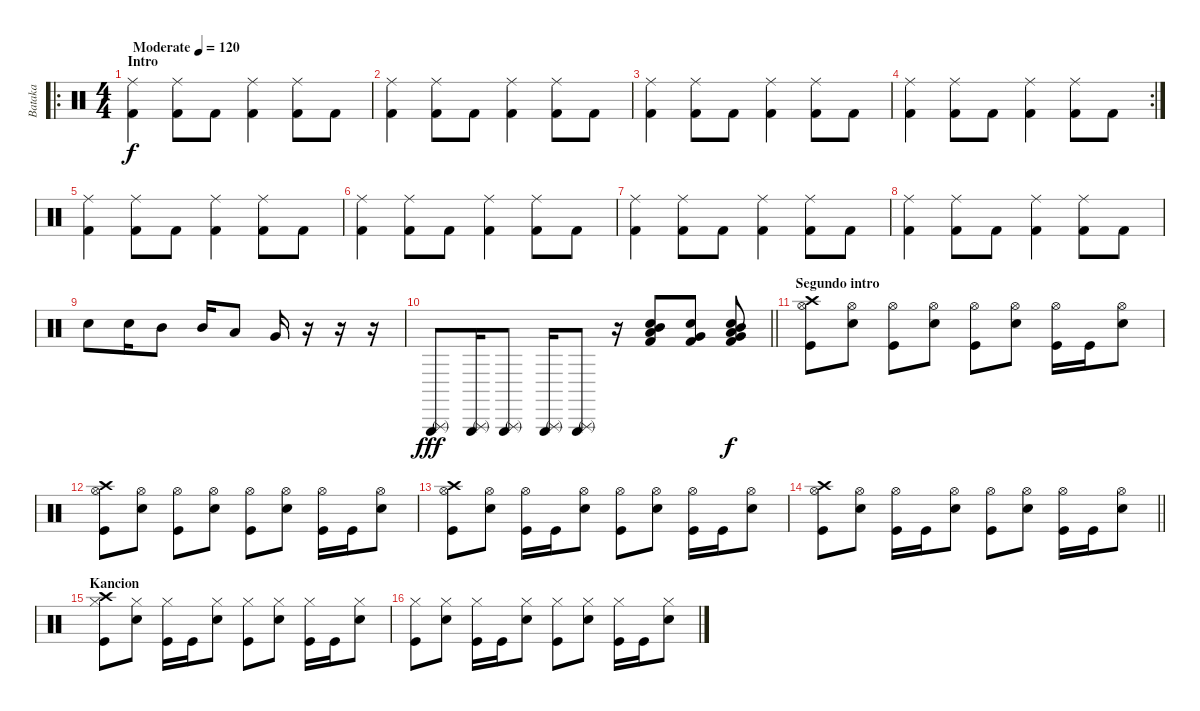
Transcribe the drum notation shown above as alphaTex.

\track ("Bataka" "Bataka") {instrument percussion}
\staff {score}
\articulation defaults
\ro
\ts (4 4)
\section ("" "Intro")
\tempo (120 "Moderate")
\clef neutral
\ks c
("Ride (middle)" "Kick (hit) 2").4{dy f} ("Ride (middle)" "Kick (hit) 2").8 "Kick (hit) 2".8 ("Ride (middle)" "Kick (hit) 2").4 ("Ride (middle)" "Kick (hit) 2").8 "Kick (hit) 2".8 |
("Ride (middle)" "Kick (hit) 2").4 ("Ride (middle)" "Kick (hit) 2").8 "Kick (hit) 2".8 ("Ride (middle)" "Kick (hit) 2").4 ("Ride (middle)" "Kick (hit) 2").8 "Kick (hit) 2".8 |
("Ride (middle)" "Kick (hit) 2").4 ("Ride (middle)" "Kick (hit) 2").8 "Kick (hit) 2".8 ("Ride (middle)" "Kick (hit) 2").4 ("Ride (middle)" "Kick (hit) 2").8 "Kick (hit) 2".8 |
\rc 2
("Ride (middle)" "Kick (hit) 2").4 ("Ride (middle)" "Kick (hit) 2").8 "Kick (hit) 2".8 ("Ride (middle)" "Kick (hit) 2").4 ("Ride (middle)" "Kick (hit) 2").8 "Kick (hit) 2".8 |
("Ride (middle)" "Kick (hit) 2").4 ("Ride (middle)" "Kick (hit) 2").8 "Kick (hit) 2".8 ("Ride (middle)" "Kick (hit) 2").4 ("Ride (middle)" "Kick (hit) 2").8 "Kick (hit) 2".8 |
("Ride (middle)" "Kick (hit) 2").4 ("Ride (middle)" "Kick (hit) 2").8 "Kick (hit) 2".8 ("Ride (middle)" "Kick (hit) 2").4 ("Ride (middle)" "Kick (hit) 2").8 "Kick (hit) 2".8 |
("Ride (middle)" "Kick (hit) 2").4 ("Ride (middle)" "Kick (hit) 2").8 "Kick (hit) 2".8 ("Ride (middle)" "Kick (hit) 2").4 ("Ride (middle)" "Kick (hit) 2").8 "Kick (hit) 2".8 |
("Ride (middle)" "Kick (hit) 2").4 ("Ride (middle)" "Kick (hit) 2").8 "Kick (hit) 2".8 ("Ride (middle)" "Kick (hit) 2").4 ("Ride (middle)" "Kick (hit) 2").8 "Kick (hit) 2".8 |
"Electric Snare (hit)".8 "Electric Snare (hit)".16 "Mid Tom (hit)".8 "Mid Tom (hit)".16 "Low Tom (hit)".8 "Very Low Tom (hit)".16 r.16 r.16 r.16 |
\barLineRight lightlight
("Triangle (rnute)" "Triangle (hit)").8{dy fff} ("Triangle (rnute)" "Triangle (hit)").16 ("Triangle (rnute)" "Triangle (hit)").8 ("Triangle (rnute)" "Triangle (hit)").16 ("Triangle (rnute)" "Triangle (hit)").8 r.16 ("Low Tom (hit)" "Electric Snare (hit)" "Mid Tom (hit)" "Kick (hit) 2").8 ("Electric Snare (hit)" "Very Low Tom (hit)" "Kick (hit) 2").8 ("Mid Tom (hit)" "Low Tom (hit)" "Electric Snare (hit)" "Very Low Tom (hit)" "Kick (hit) 2").8{dy f} |
\section ("" "Segundo intro")
("Crash high (hit)" "Hi-Hat (open)" "Kick (hit)").8 ("Hi-Hat (open)" "Electric Snare (hit)").8 ("Hi-Hat (open)" "Kick (hit)").8 ("Hi-Hat (open)" "Electric Snare (hit)").8 ("Hi-Hat (open)" "Kick (hit)").8 ("Hi-Hat (open)" "Electric Snare (hit)").8 ("Hi-Hat (open)" "Kick (hit)").16 "Kick (hit)".16 ("Hi-Hat (open)" "Electric Snare (hit)").8 |
("Crash high (hit)" "Hi-Hat (open)" "Kick (hit)").8 ("Hi-Hat (open)" "Electric Snare (hit)").8 ("Hi-Hat (open)" "Kick (hit)").8 ("Hi-Hat (open)" "Electric Snare (hit)").8 ("Hi-Hat (open)" "Kick (hit)").8 ("Hi-Hat (open)" "Electric Snare (hit)").8 ("Hi-Hat (open)" "Kick (hit)").16 "Kick (hit)".16 ("Hi-Hat (open)" "Electric Snare (hit)").8 |
("Crash high (hit)" "Hi-Hat (open)" "Kick (hit)").8 ("Hi-Hat (open)" "Electric Snare (hit)").8 ("Hi-Hat (open)" "Kick (hit)").16 "Kick (hit)".16 ("Hi-Hat (open)" "Electric Snare (hit)").8 ("Hi-Hat (open)" "Kick (hit)").8 ("Hi-Hat (open)" "Electric Snare (hit)").8 ("Hi-Hat (open)" "Kick (hit)").16 "Kick (hit)".16 ("Hi-Hat (open)" "Electric Snare (hit)").8 |
\barLineRight lightlight
("Crash high (hit)" "Hi-Hat (open)" "Kick (hit)").8 ("Hi-Hat (open)" "Electric Snare (hit)").8 ("Hi-Hat (open)" "Kick (hit)").16 "Kick (hit)".16 ("Hi-Hat (open)" "Electric Snare (hit)").8 ("Hi-Hat (open)" "Kick (hit)").8 ("Hi-Hat (open)" "Electric Snare (hit)").8 ("Hi-Hat (open)" "Kick (hit)").16 "Kick (hit)".16 ("Hi-Hat (open)" "Electric Snare (hit)").8 |
\section ("" "Kancion")
("Crash high (hit)" "Hi-Hat (closed)" "Kick (hit)").8 ("Hi-Hat (closed)" "Electric Snare (hit)").8 ("Hi-Hat (closed)" "Kick (hit)").16 "Kick (hit)".16 ("Hi-Hat (closed)" "Electric Snare (hit)").8 ("Hi-Hat (closed)" "Kick (hit)").8 ("Hi-Hat (closed)" "Electric Snare (hit)").8 ("Hi-Hat (closed)" "Kick (hit)").16 "Kick (hit)".16 ("Hi-Hat (closed)" "Electric Snare (hit)").8 |
("Hi-Hat (closed)" "Kick (hit)").8 ("Hi-Hat (closed)" "Electric Snare (hit)").8 ("Hi-Hat (closed)" "Kick (hit)").16 "Kick (hit)".16 ("Hi-Hat (closed)" "Electric Snare (hit)").8 ("Hi-Hat (closed)" "Kick (hit)").8 ("Hi-Hat (closed)" "Electric Snare (hit)").8 ("Hi-Hat (closed)" "Kick (hit)").16 "Kick (hit)".16 ("Hi-Hat (closed)" "Electric Snare (hit)").8
